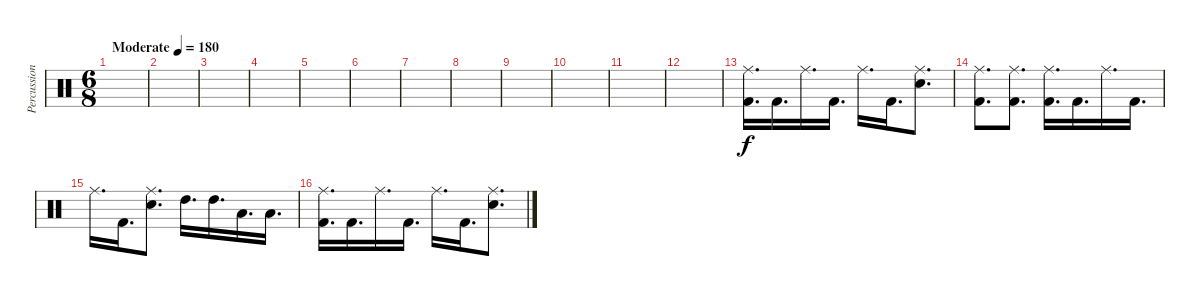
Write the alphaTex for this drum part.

\track ("Percussion" "Percussion") {instrument percussion}
\staff {score}
\articulation defaults
\ts (6 8)
\tempo (180 "Moderate")
\clef neutral
\ks c
|
|
|
|
|
|
|
|
|
|
|
|
("Ride (middle)" "Kick (hit) 2").16{d} "Kick (hit) 2".16{d} "Ride (middle)".16{d} "Kick (hit) 2".16{d} "Ride (middle)".16{d} "Kick (hit) 2".16{d} ("Ride (middle)" "Electric Snare (hit)").8{d} |
("Ride (middle)" "Kick (hit) 2").8{d} ("Ride (middle)" "Kick (hit) 2").8{d} ("Ride (middle)" "Kick (hit) 2").16{d} "Kick (hit) 2".16{d} "Ride (middle)".16{d} "Kick (hit) 2".16{d} |
"Ride (middle)".16{d} "Kick (hit) 2".16{d} ("Ride (middle)" "Electric Snare (hit)").8{d} "High Tom (hit)".16{d} "High Tom (hit)".16{d} "Low Tom (hit)".16{d} "Low Tom (hit)".16{d} |
("Ride (middle)" "Kick (hit) 2").16{d} "Kick (hit) 2".16{d} "Ride (middle)".16{d} "Kick (hit) 2".16{d} "Ride (middle)".16{d} "Kick (hit) 2".16{d} ("Ride (middle)" "Electric Snare (hit)").8{d}
